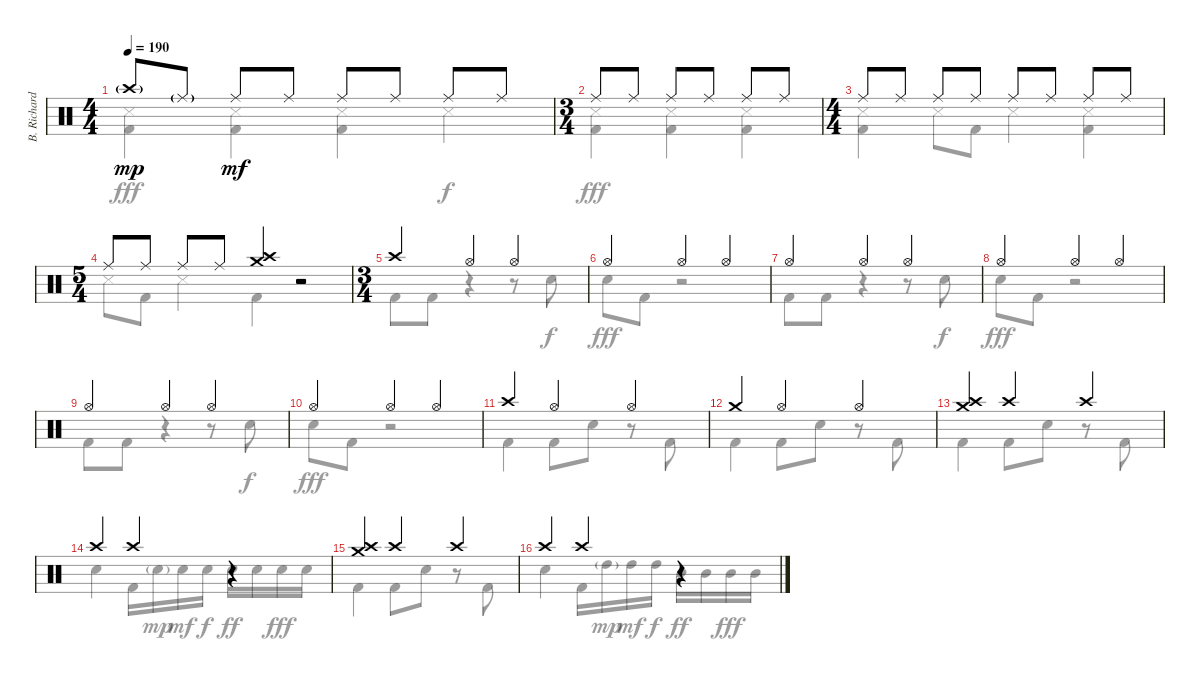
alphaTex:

\track ("B. Richardson Drums" "B. Richard") {instrument percussion}
\staff {score}
\articulation defaults
\voice
\ts (4 4)
\tempo 190
\clef neutral
\ks c "Crash high (hit)"{g}.8{dy mp} "Ride (middle)"{g}.8 "Ride (middle)".8{dy mf} "Ride (middle)".8 "Ride (middle)".8 "Ride (middle)".8 "Ride (middle)".8 "Ride (middle)".8
|
\ts (3 4)
"Ride (middle)".8 "Ride (middle)".8 "Ride (middle)".8 "Ride (middle)".8 "Ride (middle)".8 "Ride (middle)".8 |
\ts (4 4)
"Ride (middle)".8 "Ride (middle)".8 "Ride (middle)".8 "Ride (middle)".8 "Ride (middle)".8 "Ride (middle)".8 "Ride (middle)".8 "Ride (middle)".8 |
\ts (5 4)
"Ride (middle)".8 "Ride (middle)".8 "Ride (middle)".8 "Ride (middle)".8 ("Crash high (hit)" "Crash medium (hit)").4 r.2 |
\ts (3 4)
"Crash high (hit)".4 "Hi-Hat (open)".4 "Hi-Hat (open)".4 |
"Hi-Hat (open)".4 "Hi-Hat (open)".4 "Hi-Hat (open)".4 |
"Hi-Hat (open)".4 "Hi-Hat (open)".4 "Hi-Hat (open)".4 |
"Hi-Hat (open)".4 "Hi-Hat (open)".4 "Hi-Hat (open)".4 |
"Hi-Hat (open)".4 "Hi-Hat (open)".4 "Hi-Hat (open)".4 |
"Hi-Hat (open)".4 "Hi-Hat (open)".4 "Hi-Hat (open)".4 |
"Crash high (hit)".4 "Hi-Hat (open)".4 "Hi-Hat (open)".4 |
"Crash medium (hit)".4 "Hi-Hat (open)".4 "Hi-Hat (open)".4 |
("Crash high (hit)" "Crash medium (hit)").4 "Crash high (hit)".4 "Crash high (hit)".4 |
"Crash high (hit)".4 "Crash high (hit)".4 r.4 |
("Crash high (hit)" "Crash medium (hit)").4 "Crash high (hit)".4 "Crash high (hit)".4 |
"Crash high (hit)".4 "Crash high (hit)".4 r.4
\voice
\clef neutral
\ottava regular
\simile none
\ks c
("Snare (side stick) 3" "Kick (hit) 2").4{dy fff} ("Snare (side stick) 3" "Kick (hit) 2").4 ("Snare (side stick) 3" "Kick (hit) 2").4 "Snare (side stick) 3".4{dy f} |
("Snare (side stick) 3" "Kick (hit) 2").4{dy fff} ("Snare (side stick) 3" "Kick (hit) 2").4 ("Snare (side stick) 3" "Kick (hit) 2").4 |
("Snare (side stick) 3" "Kick (hit) 2").4 "Snare (side stick) 3".8 "Kick (hit) 2".8 "Snare (side stick) 3".4 ("Snare (side stick) 3" "Kick (hit) 2").4 |
"Snare (side stick) 3".8 "Kick (hit) 2".8 "Snare (side stick) 3".4 "Kick (hit) 2".4 r.2 |
"Kick (hit) 2".8 "Kick (hit) 2".8 r.4 r.8 "Electric Snare (hit)".8{dy f} |
"Electric Snare (hit)".8{dy fff} "Kick (hit) 2".8 r.2 |
"Kick (hit) 2".8 "Kick (hit) 2".8 r.4 r.8 "Electric Snare (hit)".8{dy f} |
"Electric Snare (hit)".8{dy fff} "Kick (hit) 2".8 r.2 |
"Kick (hit) 2".8 "Kick (hit) 2".8 r.4 r.8 "Electric Snare (hit)".8{dy f} |
"Electric Snare (hit)".8{dy fff} "Kick (hit) 2".8 r.2 |
"Kick (hit) 2".4 "Kick (hit) 2".8 "Electric Snare (hit)".8 r.8 "Kick (hit) 2".8 |
"Kick (hit) 2".4 "Kick (hit) 2".8 "Electric Snare (hit)".8 r.8 "Kick (hit) 2".8 |
"Kick (hit) 2".4 "Kick (hit) 2".8 "Electric Snare (hit)".8 r.8 "Kick (hit) 2".8 |
"Electric Snare (hit)".4 "Kick (hit) 2".16 "Electric Snare (hit)"{g}.16{dy mp} "Electric Snare (hit)".16{dy mf} "Electric Snare (hit)".16{dy f} "Electric Snare (hit)".16{dy ff} "Electric Snare (hit)".16 "Electric Snare (hit)".16{dy fff} "Electric Snare (hit)".16 |
"Kick (hit) 2".4 "Kick (hit) 2".8 "Electric Snare (hit)".8 r.8 "Kick (hit) 2".8 |
"Electric Snare (hit)".4 "Kick (hit) 2".16 "High Tom (hit)"{g}.16{dy mp} "High Tom (hit)".16{dy mf} "High Tom (hit)".16{dy f} "Mid Tom (hit)".16{dy ff} "Mid Tom (hit)".16 "Mid Tom (hit)".16{dy fff} "Mid Tom (hit)".16
